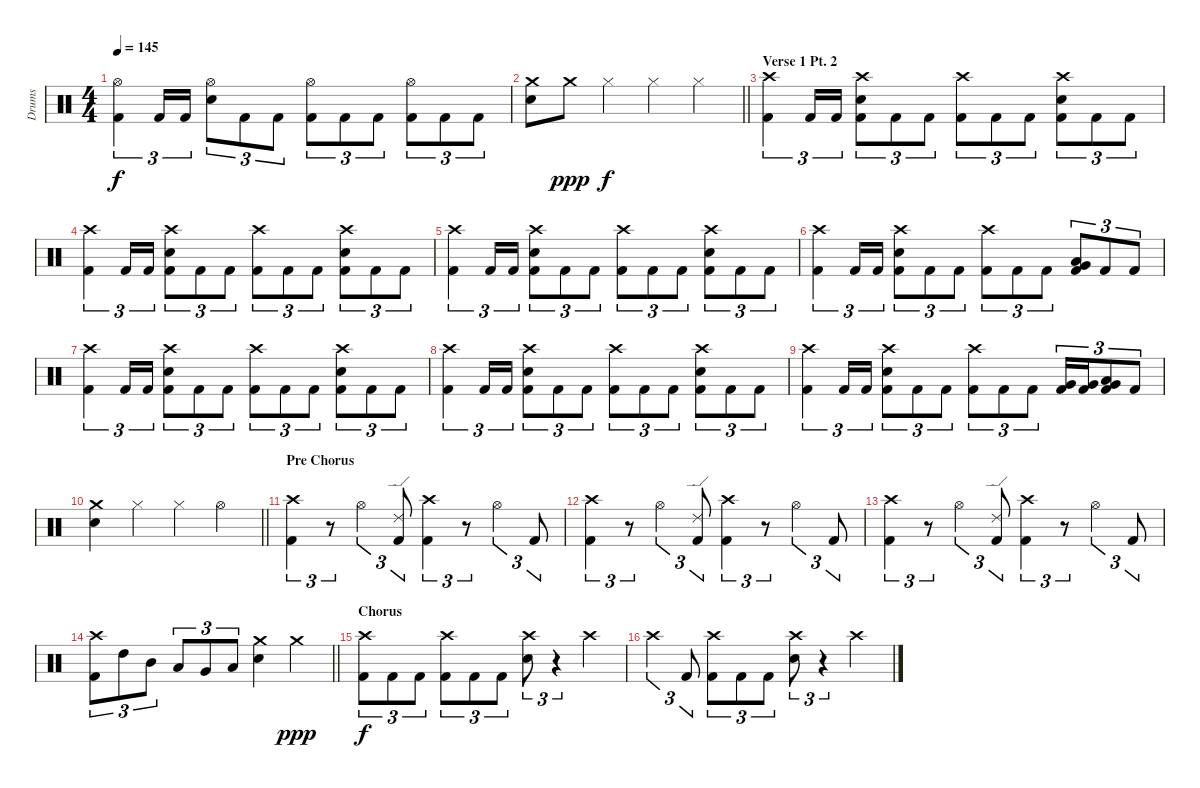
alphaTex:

\track ("Drums" "Drums") {instrument percussion}
\staff {score}
\articulation defaults
\ts (4 4)
\tempo 145
\clef neutral
\ks c
("Hi-Hat (open)" "Kick (hit) 2").4{tu (3 2) dy f} "Kick (hit) 2".16{tu (3 2)} "Kick (hit) 2".16{tu (3 2)} ("Hi-Hat (open)" "Electric Snare (hit)").8{tu (3 2)} "Kick (hit) 2".8{tu (3 2)} "Kick (hit) 2".8{tu (3 2)} ("Hi-Hat (open)" "Kick (hit) 2").8{tu (3 2)} "Kick (hit) 2".8{tu (3 2)} "Kick (hit) 2".8{tu (3 2)} ("Hi-Hat (open)" "Kick (hit) 2").8{tu (3 2)} "Kick (hit) 2".8{tu (3 2)} "Kick (hit) 2".8{tu (3 2)} |
\barLineRight lightlight
("Crash medium (hit)" "Electric Snare (hit)").8 "Crash medium (hit)".8{dy ppp} "Hi-Hat (closed)".4{dy f} "Hi-Hat (closed)".4 "Hi-Hat (closed)".4 |
\section ("" "Verse 1 Pt. 2")
("Crash high (hit)" "Kick (hit) 2").4{tu (3 2)} "Kick (hit) 2".16{tu (3 2)} "Kick (hit) 2".16{tu (3 2)} ("Crash high (hit)" "Electric Snare (hit)" "Kick (hit) 2").8{tu (3 2)} "Kick (hit) 2".8{tu (3 2)} "Kick (hit) 2".8{tu (3 2)} ("Crash high (hit)" "Kick (hit) 2").8{tu (3 2)} "Kick (hit) 2".8{tu (3 2)} "Kick (hit) 2".8{tu (3 2)} ("Crash high (hit)" "Electric Snare (hit)" "Kick (hit) 2").8{tu (3 2)} "Kick (hit) 2".8{tu (3 2)} "Kick (hit) 2".8{tu (3 2)} |
("Crash high (hit)" "Kick (hit) 2").4{tu (3 2)} "Kick (hit) 2".16{tu (3 2)} "Kick (hit) 2".16{tu (3 2)} ("Crash high (hit)" "Electric Snare (hit)" "Kick (hit) 2").8{tu (3 2)} "Kick (hit) 2".8{tu (3 2)} "Kick (hit) 2".8{tu (3 2)} ("Crash high (hit)" "Kick (hit) 2").8{tu (3 2)} "Kick (hit) 2".8{tu (3 2)} "Kick (hit) 2".8{tu (3 2)} ("Crash high (hit)" "Electric Snare (hit)" "Kick (hit) 2").8{tu (3 2)} "Kick (hit) 2".8{tu (3 2)} "Kick (hit) 2".8{tu (3 2)} |
("Crash high (hit)" "Kick (hit) 2").4{tu (3 2)} "Kick (hit) 2".16{tu (3 2)} "Kick (hit) 2".16{tu (3 2)} ("Crash high (hit)" "Electric Snare (hit)" "Kick (hit) 2").8{tu (3 2)} "Kick (hit) 2".8{tu (3 2)} "Kick (hit) 2".8{tu (3 2)} ("Crash high (hit)" "Kick (hit) 2").8{tu (3 2)} "Kick (hit) 2".8{tu (3 2)} "Kick (hit) 2".8{tu (3 2)} ("Crash high (hit)" "Electric Snare (hit)" "Kick (hit) 2").8{tu (3 2)} "Kick (hit) 2".8{tu (3 2)} "Kick (hit) 2".8{tu (3 2)} |
("Crash high (hit)" "Kick (hit) 2").4{tu (3 2)} "Kick (hit) 2".16{tu (3 2)} "Kick (hit) 2".16{tu (3 2)} ("Crash high (hit)" "Electric Snare (hit)" "Kick (hit) 2").8{tu (3 2)} "Kick (hit) 2".8{tu (3 2)} "Kick (hit) 2".8{tu (3 2)} ("Crash high (hit)" "Kick (hit) 2").8{tu (3 2)} "Kick (hit) 2".8{tu (3 2)} "Kick (hit) 2".8{tu (3 2)} ("Low Tom (hit)" "Very Low Tom (hit)" "Kick (hit) 2").8{tu (3 2)} "Kick (hit) 2".8{tu (3 2)} "Kick (hit) 2".8{tu (3 2)} |
("Crash high (hit)" "Kick (hit) 2").4{tu (3 2)} "Kick (hit) 2".16{tu (3 2)} "Kick (hit) 2".16{tu (3 2)} ("Crash high (hit)" "Electric Snare (hit)" "Kick (hit) 2").8{tu (3 2)} "Kick (hit) 2".8{tu (3 2)} "Kick (hit) 2".8{tu (3 2)} ("Crash high (hit)" "Kick (hit) 2").8{tu (3 2)} "Kick (hit) 2".8{tu (3 2)} "Kick (hit) 2".8{tu (3 2)} ("Crash high (hit)" "Electric Snare (hit)" "Kick (hit) 2").8{tu (3 2)} "Kick (hit) 2".8{tu (3 2)} "Kick (hit) 2".8{tu (3 2)} |
("Crash high (hit)" "Kick (hit) 2").4{tu (3 2)} "Kick (hit) 2".16{tu (3 2)} "Kick (hit) 2".16{tu (3 2)} ("Crash high (hit)" "Electric Snare (hit)" "Kick (hit) 2").8{tu (3 2)} "Kick (hit) 2".8{tu (3 2)} "Kick (hit) 2".8{tu (3 2)} ("Crash high (hit)" "Kick (hit) 2").8{tu (3 2)} "Kick (hit) 2".8{tu (3 2)} "Kick (hit) 2".8{tu (3 2)} ("Crash high (hit)" "Electric Snare (hit)" "Kick (hit) 2").8{tu (3 2)} "Kick (hit) 2".8{tu (3 2)} "Kick (hit) 2".8{tu (3 2)} |
("Crash high (hit)" "Kick (hit) 2").4{tu (3 2)} "Kick (hit) 2".16{tu (3 2)} "Kick (hit) 2".16{tu (3 2)} ("Crash high (hit)" "Electric Snare (hit)" "Kick (hit) 2").8{tu (3 2)} "Kick (hit) 2".8{tu (3 2)} "Kick (hit) 2".8{tu (3 2)} ("Crash high (hit)" "Kick (hit) 2").8{tu (3 2)} "Kick (hit) 2".8{tu (3 2)} "Kick (hit) 2".8{tu (3 2)} ("Very Low Tom (hit)" "Kick (hit) 2").16{tu (3 2)} ("Very Low Tom (hit)" "Kick (hit) 2").16{tu (3 2)} ("Low Tom (hit)" "Very Low Tom (hit)" "Kick (hit) 2").8{tu (3 2)} "Kick (hit) 2".8{tu (3 2)} |
\barLineRight lightlight
("Crash medium (hit)" "Electric Snare (hit)").4 "Hi-Hat (closed)".4 "Hi-Hat (closed)".4 "Hi-Hat (open)".4 |
\section ("" "Pre Chorus")
("Crash high (hit)" "Kick (hit) 2").4{tu (3 2)} r.8{tu (3 2)} "Hi-Hat (open)".4{tu (3 2)} ("Ride (edge) 2" "Kick (hit) 2").8{tu (3 2)} ("Crash high (hit)" "Kick (hit) 2").4{tu (3 2)} r.8{tu (3 2)} "Hi-Hat (open)".4{tu (3 2)} "Kick (hit) 2".8{tu (3 2)} |
("Crash high (hit)" "Kick (hit) 2").4{tu (3 2)} r.8{tu (3 2)} "Hi-Hat (open)".4{tu (3 2)} ("Ride (edge) 2" "Kick (hit) 2").8{tu (3 2)} ("Crash high (hit)" "Kick (hit) 2").4{tu (3 2)} r.8{tu (3 2)} "Hi-Hat (open)".4{tu (3 2)} "Kick (hit) 2".8{tu (3 2)} |
("Crash high (hit)" "Kick (hit) 2").4{tu (3 2)} r.8{tu (3 2)} "Hi-Hat (open)".4{tu (3 2)} ("Ride (edge) 2" "Kick (hit) 2").8{tu (3 2)} ("Crash high (hit)" "Kick (hit) 2").4{tu (3 2)} r.8{tu (3 2)} "Hi-Hat (open)".4{tu (3 2)} "Kick (hit) 2".8{tu (3 2)} |
\barLineRight lightlight
("Crash high (hit)" "Kick (hit) 2").8{tu (3 2)} "High Tom (hit)".8{tu (3 2)} "Mid Tom (hit)".8{tu (3 2)} "Low Tom (hit)".8{tu (3 2)} "Very Low Tom (hit)".8{tu (3 2)} "Low Floor Tom (hit)".8{tu (3 2)} ("Crash medium (hit)" "Electric Snare (hit)").4 "Crash medium (hit)".4{dy ppp} |
\section ("" "Chorus")
("Crash high (hit)" "Kick (hit) 2").8{tu (3 2) dy f} "Kick (hit) 2".8{tu (3 2)} "Kick (hit) 2".8{tu (3 2)} ("Crash high (hit)" "Kick (hit) 2").8{tu (3 2)} "Kick (hit) 2".8{tu (3 2)} "Kick (hit) 2".8{tu (3 2)} ("Crash high (hit)" "Electric Snare (hit)").8{tu (3 2)} r.4{tu (3 2)} "Crash high (hit)".4 |
"Crash high (hit)".4{tu (3 2)} "Kick (hit) 2".8{tu (3 2)} ("Crash high (hit)" "Kick (hit) 2").8{tu (3 2)} "Kick (hit) 2".8{tu (3 2)} "Kick (hit) 2".8{tu (3 2)} ("Crash high (hit)" "Electric Snare (hit)").8{tu (3 2)} r.4{tu (3 2)} "Crash high (hit)".4
